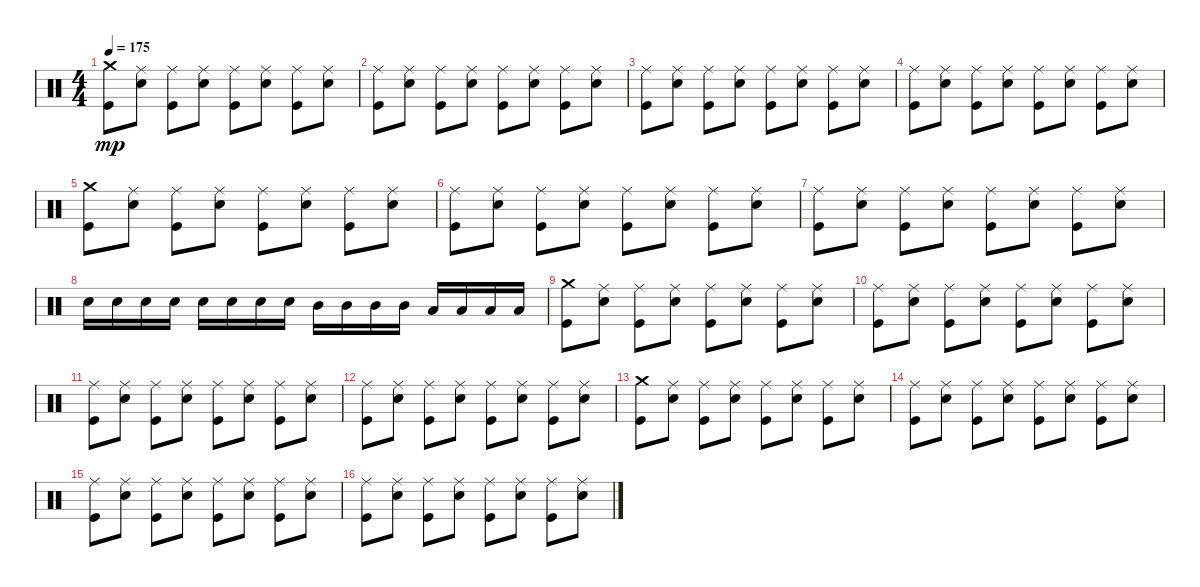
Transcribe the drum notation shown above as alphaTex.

\track "" {instrument percussion}
\staff {score}
\articulation defaults
\ts (4 4)
\tempo 175
\clef neutral
\ks c
("Kick (hit)" "Crash medium (hit)").8{dy mp} ("Ride (middle)" "Snare (hit) 2").8 ("Ride (middle)" "Kick (hit)").8 ("Ride (middle)" "Snare (hit) 2").8 ("Ride (middle)" "Kick (hit)").8 ("Ride (middle)" "Snare (hit) 2").8 ("Ride (middle)" "Kick (hit)").8 ("Ride (middle)" "Snare (hit) 2").8 |
("Ride (middle)" "Kick (hit)").8 ("Ride (middle)" "Snare (hit) 2").8 ("Ride (middle)" "Kick (hit)").8 ("Ride (middle)" "Snare (hit) 2").8 ("Ride (middle)" "Kick (hit)").8 ("Ride (middle)" "Snare (hit) 2").8 ("Ride (middle)" "Kick (hit)").8 ("Ride (middle)" "Snare (hit) 2").8 |
("Kick (hit)" "Ride (middle)").8 ("Ride (middle)" "Snare (hit) 2").8 ("Ride (middle)" "Kick (hit)").8 ("Ride (middle)" "Snare (hit) 2").8 ("Ride (middle)" "Kick (hit)").8 ("Ride (middle)" "Snare (hit) 2").8 ("Ride (middle)" "Kick (hit)").8 ("Ride (middle)" "Snare (hit) 2").8 |
("Ride (middle)" "Kick (hit)").8 ("Ride (middle)" "Snare (hit) 2").8 ("Ride (middle)" "Kick (hit)").8 ("Ride (middle)" "Snare (hit) 2").8 ("Ride (middle)" "Kick (hit)").8 ("Ride (middle)" "Snare (hit) 2").8 ("Ride (middle)" "Kick (hit)").8 ("Ride (middle)" "Snare (hit) 2").8 |
("Kick (hit)" "Crash medium (hit)").8 ("Ride (middle)" "Snare (hit) 2").8 ("Ride (middle)" "Kick (hit)").8 ("Ride (middle)" "Snare (hit) 2").8 ("Ride (middle)" "Kick (hit)").8 ("Ride (middle)" "Snare (hit) 2").8 ("Ride (middle)" "Kick (hit)").8 ("Ride (middle)" "Snare (hit) 2").8 |
("Ride (middle)" "Kick (hit)").8 ("Ride (middle)" "Snare (hit) 2").8 ("Ride (middle)" "Kick (hit)").8 ("Ride (middle)" "Snare (hit) 2").8 ("Ride (middle)" "Kick (hit)").8 ("Ride (middle)" "Snare (hit) 2").8 ("Ride (middle)" "Kick (hit)").8 ("Ride (middle)" "Snare (hit) 2").8 |
("Kick (hit)" "Ride (middle)").8 ("Ride (middle)" "Snare (hit) 2").8 ("Ride (middle)" "Kick (hit)").8 ("Ride (middle)" "Snare (hit) 2").8 ("Ride (middle)" "Kick (hit)").8 ("Ride (middle)" "Snare (hit) 2").8 ("Ride (middle)" "Kick (hit)").8 ("Ride (middle)" "Snare (hit) 2").8 |
"Snare (hit) 2".16 "Snare (hit) 2".16 "Snare (hit) 2".16 "Snare (hit) 2".16 "Snare (hit) 2".16 "Snare (hit) 2".16 "Snare (hit) 2".16 "Snare (hit) 2".16 "Mid Tom (hit)".16 "Mid Tom (hit)".16 "Mid Tom (hit)".16 "Mid Tom (hit)".16 "Low Tom (hit)".16 "Low Tom (hit)".16 "Low Tom (hit)".16 "Low Tom (hit)".16 |
("Kick (hit)" "Crash medium (hit)").8 ("Snare (hit) 2" "Ride (middle)").8 ("Kick (hit)" "Ride (middle)").8 ("Snare (hit) 2" "Ride (middle)").8 ("Kick (hit)" "Ride (middle)").8 ("Snare (hit) 2" "Ride (middle)").8 ("Kick (hit)" "Ride (middle)").8 ("Snare (hit) 2" "Ride (middle)").8 |
("Kick (hit)" "Ride (middle)").8 ("Snare (hit) 2" "Ride (middle)").8 ("Kick (hit)" "Ride (middle)").8 ("Snare (hit) 2" "Ride (middle)").8 ("Kick (hit)" "Ride (middle)").8 ("Snare (hit) 2" "Ride (middle)").8 ("Kick (hit)" "Ride (middle)").8 ("Snare (hit) 2" "Ride (middle)").8 |
("Kick (hit)" "Ride (middle)").8 ("Snare (hit) 2" "Ride (middle)").8 ("Kick (hit)" "Ride (middle)").8 ("Snare (hit) 2" "Ride (middle)").8 ("Kick (hit)" "Ride (middle)").8 ("Snare (hit) 2" "Ride (middle)").8 ("Kick (hit)" "Ride (middle)").8 ("Snare (hit) 2" "Ride (middle)").8 |
("Kick (hit)" "Ride (middle)").8 ("Snare (hit) 2" "Ride (middle)").8 ("Kick (hit)" "Ride (middle)").8 ("Snare (hit) 2" "Ride (middle)").8 ("Kick (hit)" "Ride (middle)").8 ("Snare (hit) 2" "Ride (middle)").8 ("Kick (hit)" "Ride (middle)").8 ("Snare (hit) 2" "Ride (middle)").8 |
("Kick (hit)" "Crash medium (hit)").8 ("Snare (hit) 2" "Ride (middle)").8 ("Kick (hit)" "Ride (middle)").8 ("Snare (hit) 2" "Ride (middle)").8 ("Kick (hit)" "Ride (middle)").8 ("Snare (hit) 2" "Ride (middle)").8 ("Kick (hit)" "Ride (middle)").8 ("Snare (hit) 2" "Ride (middle)").8 |
("Kick (hit)" "Ride (middle)").8 ("Snare (hit) 2" "Ride (middle)").8 ("Kick (hit)" "Ride (middle)").8 ("Snare (hit) 2" "Ride (middle)").8 ("Kick (hit)" "Ride (middle)").8 ("Snare (hit) 2" "Ride (middle)").8 ("Kick (hit)" "Ride (middle)").8 ("Snare (hit) 2" "Ride (middle)").8 |
("Kick (hit)" "Ride (middle)").8 ("Snare (hit) 2" "Ride (middle)").8 ("Kick (hit)" "Ride (middle)").8 ("Snare (hit) 2" "Ride (middle)").8 ("Kick (hit)" "Ride (middle)").8 ("Snare (hit) 2" "Ride (middle)").8 ("Kick (hit)" "Ride (middle)").8 ("Snare (hit) 2" "Ride (middle)").8 |
("Kick (hit)" "Ride (middle)").8 ("Snare (hit) 2" "Ride (middle)").8 ("Kick (hit)" "Ride (middle)").8 ("Snare (hit) 2" "Ride (middle)").8 ("Kick (hit)" "Ride (middle)").8 ("Snare (hit) 2" "Ride (middle)").8 ("Kick (hit)" "Ride (middle)").8 ("Snare (hit) 2" "Ride (middle)").8
